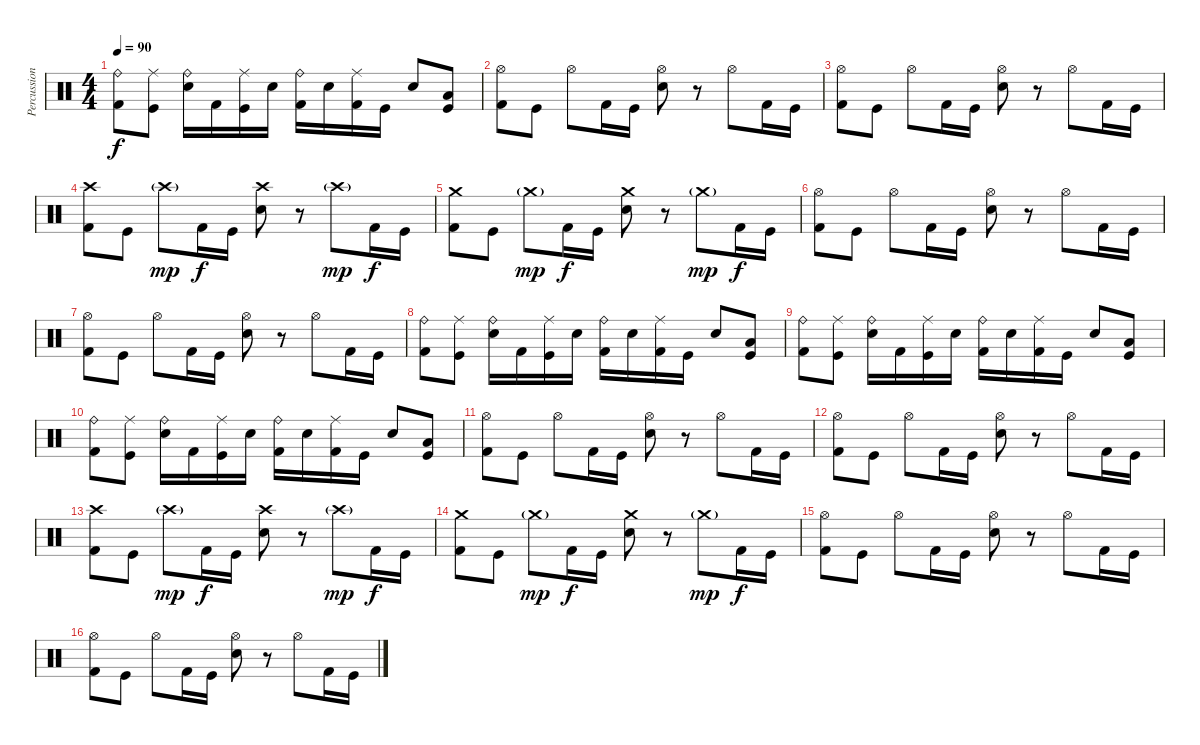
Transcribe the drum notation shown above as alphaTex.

\track ("Percussion" "Percussion") {instrument percussion}
\staff {score}
\articulation defaults
\ts (4 4)
\tempo 90
\clef neutral
\ks c
("Ride (bell)" "Kick (hit) 2").8{dy f} ("Ride (middle)" "Kick (hit)").8 ("Ride (bell)" "Electric Snare (hit)").16 "Kick (hit) 2".16 ("Ride (middle)" "Kick (hit)").16 "Electric Snare (hit)".16 ("Ride (bell)" "Kick (hit) 2").16 "Electric Snare (hit)".16 ("Ride (middle)" "Kick (hit) 2").16 "Kick (hit)".16 "Electric Snare (hit)".8 ("Low Tom (hit)" "Kick (hit)").8 |
("Hi-Hat (open)" "Kick (hit) 2").8 "Kick (hit)".8 "Hi-Hat (open)".8 "Kick (hit) 2".16 "Kick (hit)".16 ("Hi-Hat (open)" "Electric Snare (hit)").8 r.8 "Hi-Hat (open)".8 "Kick (hit) 2".16 "Kick (hit)".16 |
("Hi-Hat (open)" "Kick (hit) 2").8 "Kick (hit)".8 "Hi-Hat (open)".8 "Kick (hit) 2".16 "Kick (hit)".16 ("Hi-Hat (open)" "Electric Snare (hit)").8 r.8 "Hi-Hat (open)".8 "Kick (hit) 2".16 "Kick (hit)".16 |
("Crash high (hit)" "Kick (hit) 2").8 "Kick (hit)".8 "Crash high (hit)"{g}.8{dy mp} "Kick (hit) 2".16{dy f} "Kick (hit)".16 ("Crash high (hit)" "Electric Snare (hit)").8 r.8 "Crash high (hit)"{g}.8{dy mp} "Kick (hit) 2".16{dy f} "Kick (hit)".16 |
("Crash medium (hit)" "Kick (hit) 2").8 "Kick (hit)".8 "Crash medium (hit)"{g}.8{dy mp} "Kick (hit) 2".16{dy f} "Kick (hit)".16 ("Crash medium (hit)" "Electric Snare (hit)").8 r.8 "Crash medium (hit)"{g}.8{dy mp} "Kick (hit) 2".16{dy f} "Kick (hit)".16 |
("Hi-Hat (open)" "Kick (hit) 2").8 "Kick (hit)".8 "Hi-Hat (open)".8 "Kick (hit) 2".16 "Kick (hit)".16 ("Hi-Hat (open)" "Electric Snare (hit)").8 r.8 "Hi-Hat (open)".8 "Kick (hit) 2".16 "Kick (hit)".16 |
("Hi-Hat (open)" "Kick (hit) 2").8 "Kick (hit)".8 "Hi-Hat (open)".8 "Kick (hit) 2".16 "Kick (hit)".16 ("Hi-Hat (open)" "Electric Snare (hit)").8 r.8 "Hi-Hat (open)".8 "Kick (hit) 2".16 "Kick (hit)".16 |
("Ride (bell)" "Kick (hit) 2").8 ("Ride (middle)" "Kick (hit)").8 ("Ride (bell)" "Electric Snare (hit)").16 "Kick (hit) 2".16 ("Ride (middle)" "Kick (hit)").16 "Electric Snare (hit)".16 ("Ride (bell)" "Kick (hit) 2").16 "Electric Snare (hit)".16 ("Ride (middle)" "Kick (hit) 2").16 "Kick (hit)".16 "Electric Snare (hit)".8 ("Low Tom (hit)" "Kick (hit)").8 |
("Ride (bell)" "Kick (hit) 2").8 ("Ride (middle)" "Kick (hit)").8 ("Ride (bell)" "Electric Snare (hit)").16 "Kick (hit) 2".16 ("Ride (middle)" "Kick (hit)").16 "Electric Snare (hit)".16 ("Ride (bell)" "Kick (hit) 2").16 "Electric Snare (hit)".16 ("Ride (middle)" "Kick (hit) 2").16 "Kick (hit)".16 "Electric Snare (hit)".8 ("Low Tom (hit)" "Kick (hit)").8 |
("Ride (bell)" "Kick (hit) 2").8 ("Ride (middle)" "Kick (hit)").8 ("Ride (bell)" "Electric Snare (hit)").16 "Kick (hit) 2".16 ("Ride (middle)" "Kick (hit)").16 "Electric Snare (hit)".16 ("Ride (bell)" "Kick (hit) 2").16 "Electric Snare (hit)".16 ("Ride (middle)" "Kick (hit) 2").16 "Kick (hit)".16 "Electric Snare (hit)".8 ("Low Tom (hit)" "Kick (hit)").8 |
("Hi-Hat (open)" "Kick (hit) 2").8 "Kick (hit)".8 "Hi-Hat (open)".8 "Kick (hit) 2".16 "Kick (hit)".16 ("Hi-Hat (open)" "Electric Snare (hit)").8 r.8 "Hi-Hat (open)".8 "Kick (hit) 2".16 "Kick (hit)".16 |
("Hi-Hat (open)" "Kick (hit) 2").8 "Kick (hit)".8 "Hi-Hat (open)".8 "Kick (hit) 2".16 "Kick (hit)".16 ("Hi-Hat (open)" "Electric Snare (hit)").8 r.8 "Hi-Hat (open)".8 "Kick (hit) 2".16 "Kick (hit)".16 |
("Crash high (hit)" "Kick (hit) 2").8 "Kick (hit)".8 "Crash high (hit)"{g}.8{dy mp} "Kick (hit) 2".16{dy f} "Kick (hit)".16 ("Crash high (hit)" "Electric Snare (hit)").8 r.8 "Crash high (hit)"{g}.8{dy mp} "Kick (hit) 2".16{dy f} "Kick (hit)".16 |
("Crash medium (hit)" "Kick (hit) 2").8 "Kick (hit)".8 "Crash medium (hit)"{g}.8{dy mp} "Kick (hit) 2".16{dy f} "Kick (hit)".16 ("Crash medium (hit)" "Electric Snare (hit)").8 r.8 "Crash medium (hit)"{g}.8{dy mp} "Kick (hit) 2".16{dy f} "Kick (hit)".16 |
("Hi-Hat (open)" "Kick (hit) 2").8 "Kick (hit)".8 "Hi-Hat (open)".8 "Kick (hit) 2".16 "Kick (hit)".16 ("Hi-Hat (open)" "Electric Snare (hit)").8 r.8 "Hi-Hat (open)".8 "Kick (hit) 2".16 "Kick (hit)".16 |
("Hi-Hat (open)" "Kick (hit) 2").8 "Kick (hit)".8 "Hi-Hat (open)".8 "Kick (hit) 2".16 "Kick (hit)".16 ("Hi-Hat (open)" "Electric Snare (hit)").8 r.8 "Hi-Hat (open)".8 "Kick (hit) 2".16 "Kick (hit)".16
